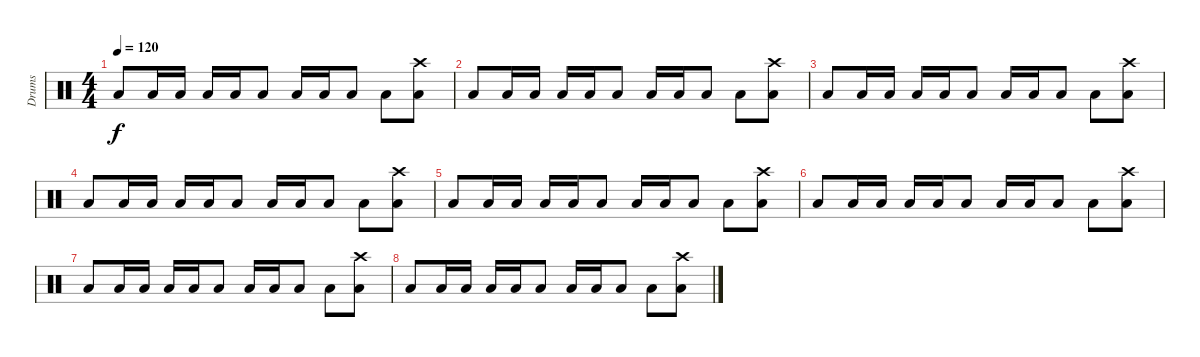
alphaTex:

\track ("Drums" "Drums") {instrument percussion}
\staff {score}
\articulation defaults
\ts (4 4)
\tempo 120
\clef neutral
\ks c "Low Tom (hit)".8{dy f} "Low Tom (hit)".16 "Low Tom (hit)".16 "Low Tom (hit)".16 "Low Tom (hit)".16 "Low Tom (hit)".8 "Low Tom (hit)".16 "Low Tom (hit)".16 "Low Tom (hit)".8 "Low Tom (hit)".8
("Low Tom (hit)" "Crash high (hit)").8 |
"Low Tom (hit)".8 "Low Tom (hit)".16 "Low Tom (hit)".16 "Low Tom (hit)".16 "Low Tom (hit)".16 "Low Tom (hit)".8 "Low Tom (hit)".16 "Low Tom (hit)".16 "Low Tom (hit)".8 "Low Tom (hit)".8 ("Low Tom (hit)" "Crash high (hit)").8 |
"Low Tom (hit)".8 "Low Tom (hit)".16 "Low Tom (hit)".16 "Low Tom (hit)".16 "Low Tom (hit)".16 "Low Tom (hit)".8 "Low Tom (hit)".16 "Low Tom (hit)".16 "Low Tom (hit)".8 "Low Tom (hit)".8 ("Low Tom (hit)" "Crash high (hit)").8 |
"Low Tom (hit)".8 "Low Tom (hit)".16 "Low Tom (hit)".16 "Low Tom (hit)".16 "Low Tom (hit)".16 "Low Tom (hit)".8 "Low Tom (hit)".16 "Low Tom (hit)".16 "Low Tom (hit)".8 "Low Tom (hit)".8 ("Low Tom (hit)" "Crash high (hit)").8 |
"Low Tom (hit)".8 "Low Tom (hit)".16 "Low Tom (hit)".16 "Low Tom (hit)".16 "Low Tom (hit)".16 "Low Tom (hit)".8 "Low Tom (hit)".16 "Low Tom (hit)".16 "Low Tom (hit)".8 "Low Tom (hit)".8 ("Low Tom (hit)" "Crash high (hit)").8 |
"Low Tom (hit)".8 "Low Tom (hit)".16 "Low Tom (hit)".16 "Low Tom (hit)".16 "Low Tom (hit)".16 "Low Tom (hit)".8 "Low Tom (hit)".16 "Low Tom (hit)".16 "Low Tom (hit)".8 "Low Tom (hit)".8 ("Low Tom (hit)" "Crash high (hit)").8 |
"Low Tom (hit)".8 "Low Tom (hit)".16 "Low Tom (hit)".16 "Low Tom (hit)".16 "Low Tom (hit)".16 "Low Tom (hit)".8 "Low Tom (hit)".16 "Low Tom (hit)".16 "Low Tom (hit)".8 "Low Tom (hit)".8 ("Low Tom (hit)" "Crash high (hit)").8 |
"Low Tom (hit)".8 "Low Tom (hit)".16 "Low Tom (hit)".16 "Low Tom (hit)".16 "Low Tom (hit)".16 "Low Tom (hit)".8 "Low Tom (hit)".16 "Low Tom (hit)".16 "Low Tom (hit)".8 "Low Tom (hit)".8 ("Low Tom (hit)" "Crash high (hit)").8
